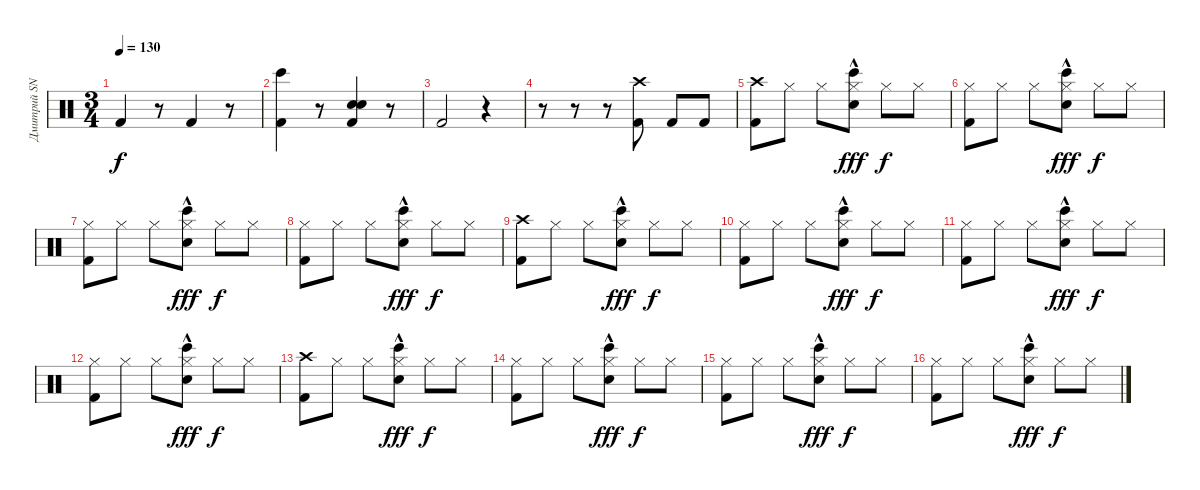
\track ("Дмитрий SNAKE Хакимов" "Дмитрий SN") {instrument percussion}
\staff {score}
\articulation defaults
\ts (3 4)
\tempo 130
\clef neutral
\ks c "Kick (hit) 2".4{dy f}
r.8 "Kick (hit) 2".4 r.8 |
("Bongo High (hit)" "Kick (hit) 2").4 r.8 ("Electric Snare (hit)" "Snare (hit) 2" "Kick (hit) 2").4 r.8 |
"Kick (hit) 2".2 r.4 |
r.8 r.8 r.8 ("Crash high (hit)" "Kick (hit) 2").8 "Kick (hit) 2".8 "Kick (hit) 2".8 |
("Crash high (hit)" "Kick (hit) 2").8 "Hi-Hat (closed)".8 "Hi-Hat (closed)".8 ("Hi-Hat (closed)" "Snare (hit) 2"{hac} "Bongo High (hit)").8{dy fff} "Hi-Hat (closed)".8{dy f} "Hi-Hat (closed)".8 |
("Hi-Hat (closed)" "Kick (hit) 2").8 "Hi-Hat (closed)".8 "Hi-Hat (closed)".8 ("Hi-Hat (closed)" "Snare (hit) 2"{hac} "Bongo High (hit)").8{dy fff} "Hi-Hat (closed)".8{dy f} "Hi-Hat (closed)".8 |
("Hi-Hat (closed)" "Kick (hit) 2").8 "Hi-Hat (closed)".8 "Hi-Hat (closed)".8 ("Hi-Hat (closed)" "Snare (hit) 2"{hac} "Bongo High (hit)").8{dy fff} "Hi-Hat (closed)".8{dy f} "Hi-Hat (closed)".8 |
("Hi-Hat (closed)" "Kick (hit) 2").8 "Hi-Hat (closed)".8 "Hi-Hat (closed)".8 ("Hi-Hat (closed)" "Snare (hit) 2"{hac} "Bongo High (hit)").8{dy fff} "Hi-Hat (closed)".8{dy f} "Hi-Hat (closed)".8 |
("Crash high (hit)" "Kick (hit) 2").8 "Hi-Hat (closed)".8 "Hi-Hat (closed)".8 ("Hi-Hat (closed)" "Snare (hit) 2"{hac} "Bongo High (hit)").8{dy fff} "Hi-Hat (closed)".8{dy f} "Hi-Hat (closed)".8 |
("Hi-Hat (closed)" "Kick (hit) 2").8 "Hi-Hat (closed)".8 "Hi-Hat (closed)".8 ("Hi-Hat (closed)" "Snare (hit) 2"{hac} "Bongo High (hit)").8{dy fff} "Hi-Hat (closed)".8{dy f} "Hi-Hat (closed)".8 |
("Hi-Hat (closed)" "Kick (hit) 2").8 "Hi-Hat (closed)".8 "Hi-Hat (closed)".8 ("Hi-Hat (closed)" "Snare (hit) 2"{hac} "Bongo High (hit)").8{dy fff} "Hi-Hat (closed)".8{dy f} "Hi-Hat (closed)".8 |
("Hi-Hat (closed)" "Kick (hit) 2").8 "Hi-Hat (closed)".8 "Hi-Hat (closed)".8 ("Hi-Hat (closed)" "Snare (hit) 2"{hac} "Bongo High (hit)").8{dy fff} "Hi-Hat (closed)".8{dy f} "Hi-Hat (closed)".8 |
("Crash high (hit)" "Kick (hit) 2").8 "Hi-Hat (closed)".8 "Hi-Hat (closed)".8 ("Hi-Hat (closed)" "Snare (hit) 2"{hac} "Bongo High (hit)").8{dy fff} "Hi-Hat (closed)".8{dy f} "Hi-Hat (closed)".8 |
("Hi-Hat (closed)" "Kick (hit) 2").8 "Hi-Hat (closed)".8 "Hi-Hat (closed)".8 ("Hi-Hat (closed)" "Snare (hit) 2"{hac} "Bongo High (hit)").8{dy fff} "Hi-Hat (closed)".8{dy f} "Hi-Hat (closed)".8 |
("Hi-Hat (closed)" "Kick (hit) 2").8 "Hi-Hat (closed)".8 "Hi-Hat (closed)".8 ("Hi-Hat (closed)" "Snare (hit) 2"{hac} "Bongo High (hit)").8{dy fff} "Hi-Hat (closed)".8{dy f} "Hi-Hat (closed)".8 |
("Hi-Hat (closed)" "Kick (hit) 2").8 "Hi-Hat (closed)".8 "Hi-Hat (closed)".8 ("Hi-Hat (closed)" "Snare (hit) 2"{hac} "Bongo High (hit)").8{dy fff} "Hi-Hat (closed)".8{dy f} "Hi-Hat (closed)".8
